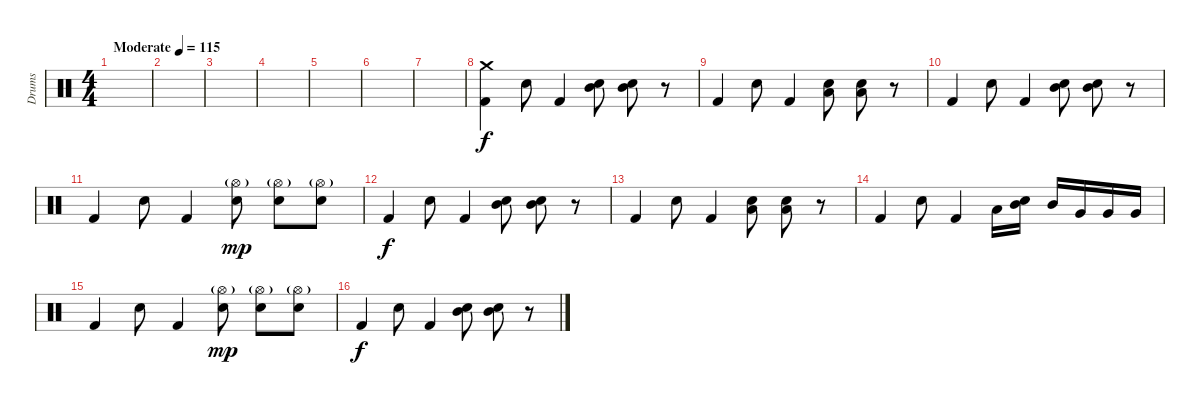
\track ("Drums" "Drums") {instrument percussion}
\staff {score}
\articulation defaults
\ts (4 4)
\tempo (115 "Moderate")
\clef neutral
\ks c
|
|
|
|
|
|
|
("Crash medium (hit)" "Kick (hit) 2").4 "Snare (hit) 2".8 "Kick (hit) 2".4 ("Mid Tom (hit)" "Snare (hit) 2").8 ("Mid Tom (hit)" "Snare (hit) 2").8 r.8 |
"Kick (hit) 2".4 "Snare (hit) 2".8 "Kick (hit) 2".4 ("Low Tom (hit)" "Snare (hit) 2").8 ("Low Tom (hit)" "Snare (hit) 2").8 r.8 |
"Kick (hit) 2".4 "Snare (hit) 2".8 "Kick (hit) 2".4 ("Mid Tom (hit)" "Snare (hit) 2").8 ("Mid Tom (hit)" "Snare (hit) 2").8 r.8 |
"Kick (hit) 2".4 "Snare (hit) 2".8 "Kick (hit) 2".4 ("Hi-Hat (open)"{g} "Snare (hit) 2").8{dy mp} ("Hi-Hat (open)"{g} "Snare (hit) 2").8 ("Hi-Hat (open)"{g} "Snare (hit) 2").8 |
"Kick (hit) 2".4{dy f} "Snare (hit) 2".8 "Kick (hit) 2".4 ("Mid Tom (hit)" "Snare (hit) 2").8 ("Mid Tom (hit)" "Snare (hit) 2").8 r.8 |
"Kick (hit) 2".4 "Snare (hit) 2".8 "Kick (hit) 2".4 ("Low Tom (hit)" "Snare (hit) 2").8 ("Low Tom (hit)" "Snare (hit) 2").8 r.8 |
"Kick (hit) 2".4 "Snare (hit) 2".8 "Kick (hit) 2".4 "Low Tom (hit)".16 ("Mid Tom (hit)" "Snare (hit) 2").16 "Mid Tom (hit)".16 "Very Low Tom (hit)".16 "Very Low Tom (hit)".16 "Very Low Tom (hit)".16 |
"Kick (hit) 2".4 "Snare (hit) 2".8 "Kick (hit) 2".4 ("Hi-Hat (open)"{g} "Snare (hit) 2").8{dy mp} ("Hi-Hat (open)"{g} "Snare (hit) 2").8 ("Hi-Hat (open)"{g} "Snare (hit) 2").8 |
"Kick (hit) 2".4{dy f} "Snare (hit) 2".8 "Kick (hit) 2".4 ("Mid Tom (hit)" "Snare (hit) 2").8 ("Mid Tom (hit)" "Snare (hit) 2").8 r.8
